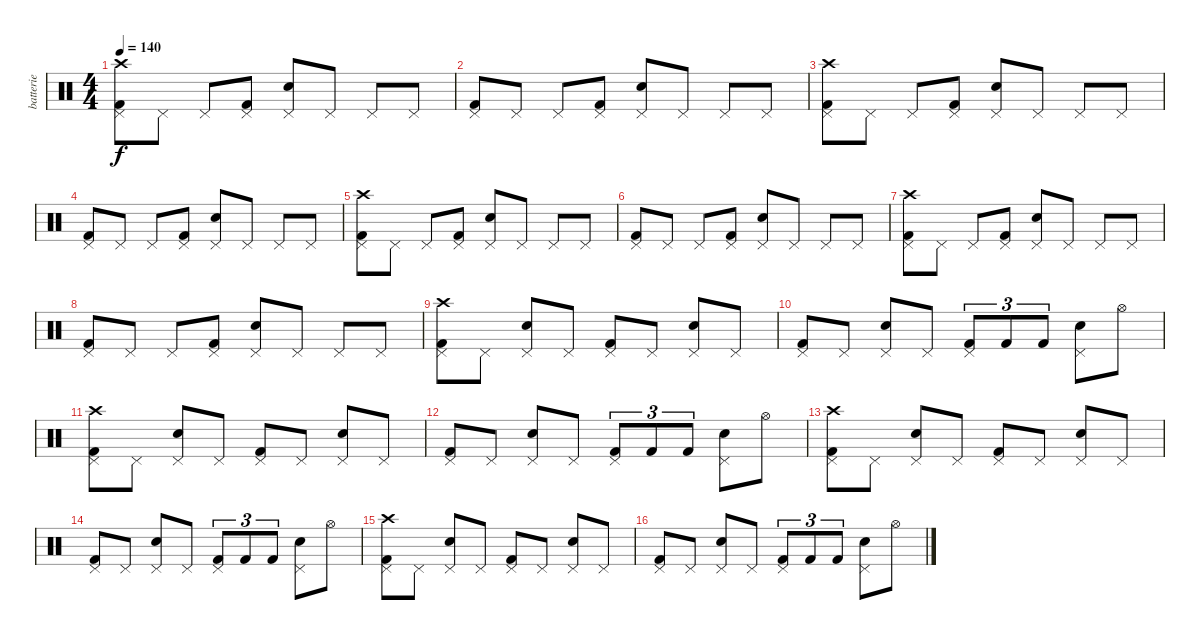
\track ("batterie" "batterie") {instrument percussion}
\staff {score}
\articulation defaults
\ts (4 4)
\tempo 140
\clef neutral
\ks c
("Crash high (hit)" "Kick (hit) 2" "Pedal Hi-Hat (hit)").8{dy f} "Pedal Hi-Hat (hit)".8 "Pedal Hi-Hat (hit)".8 ("Kick (hit) 2" "Pedal Hi-Hat (hit)").8 ("Snare (hit) 2" "Pedal Hi-Hat (hit)").8 "Pedal Hi-Hat (hit)".8 "Pedal Hi-Hat (hit)".8 "Pedal Hi-Hat (hit)".8 |
("Kick (hit) 2" "Pedal Hi-Hat (hit)").8 "Pedal Hi-Hat (hit)".8 "Pedal Hi-Hat (hit)".8 ("Kick (hit) 2" "Pedal Hi-Hat (hit)").8 ("Snare (hit) 2" "Pedal Hi-Hat (hit)").8 "Pedal Hi-Hat (hit)".8 "Pedal Hi-Hat (hit)".8 "Pedal Hi-Hat (hit)".8 |
("Crash high (hit)" "Kick (hit) 2" "Pedal Hi-Hat (hit)").8 "Pedal Hi-Hat (hit)".8 "Pedal Hi-Hat (hit)".8 ("Kick (hit) 2" "Pedal Hi-Hat (hit)").8 ("Snare (hit) 2" "Pedal Hi-Hat (hit)").8 "Pedal Hi-Hat (hit)".8 "Pedal Hi-Hat (hit)".8 "Pedal Hi-Hat (hit)".8 |
("Kick (hit) 2" "Pedal Hi-Hat (hit)").8 "Pedal Hi-Hat (hit)".8 "Pedal Hi-Hat (hit)".8 ("Kick (hit) 2" "Pedal Hi-Hat (hit)").8 ("Snare (hit) 2" "Pedal Hi-Hat (hit)").8 "Pedal Hi-Hat (hit)".8 "Pedal Hi-Hat (hit)".8 "Pedal Hi-Hat (hit)".8 |
("Crash high (hit)" "Kick (hit) 2" "Pedal Hi-Hat (hit)").8 "Pedal Hi-Hat (hit)".8 "Pedal Hi-Hat (hit)".8 ("Kick (hit) 2" "Pedal Hi-Hat (hit)").8 ("Snare (hit) 2" "Pedal Hi-Hat (hit)").8 "Pedal Hi-Hat (hit)".8 "Pedal Hi-Hat (hit)".8 "Pedal Hi-Hat (hit)".8 |
("Kick (hit) 2" "Pedal Hi-Hat (hit)").8 "Pedal Hi-Hat (hit)".8 "Pedal Hi-Hat (hit)".8 ("Kick (hit) 2" "Pedal Hi-Hat (hit)").8 ("Snare (hit) 2" "Pedal Hi-Hat (hit)").8 "Pedal Hi-Hat (hit)".8 "Pedal Hi-Hat (hit)".8 "Pedal Hi-Hat (hit)".8 |
("Crash high (hit)" "Kick (hit) 2" "Pedal Hi-Hat (hit)").8 "Pedal Hi-Hat (hit)".8 "Pedal Hi-Hat (hit)".8 ("Kick (hit) 2" "Pedal Hi-Hat (hit)").8 ("Snare (hit) 2" "Pedal Hi-Hat (hit)").8 "Pedal Hi-Hat (hit)".8 "Pedal Hi-Hat (hit)".8 "Pedal Hi-Hat (hit)".8 |
("Kick (hit) 2" "Pedal Hi-Hat (hit)").8 "Pedal Hi-Hat (hit)".8 "Pedal Hi-Hat (hit)".8 ("Kick (hit) 2" "Pedal Hi-Hat (hit)").8 ("Snare (hit) 2" "Pedal Hi-Hat (hit)").8 "Pedal Hi-Hat (hit)".8 "Pedal Hi-Hat (hit)".8 "Pedal Hi-Hat (hit)".8 |
("Crash high (hit)" "Kick (hit) 2" "Pedal Hi-Hat (hit)").8 "Pedal Hi-Hat (hit)".8 ("Snare (hit) 2" "Pedal Hi-Hat (hit)").8 "Pedal Hi-Hat (hit)".8 ("Kick (hit) 2" "Pedal Hi-Hat (hit)").8 "Pedal Hi-Hat (hit)".8 ("Snare (hit) 2" "Pedal Hi-Hat (hit)").8 "Pedal Hi-Hat (hit)".8 |
("Kick (hit) 2" "Pedal Hi-Hat (hit)").8 "Pedal Hi-Hat (hit)".8 ("Snare (hit) 2" "Pedal Hi-Hat (hit)").8 "Pedal Hi-Hat (hit)".8 ("Kick (hit) 2" "Pedal Hi-Hat (hit)").8{tu (3 2)} "Kick (hit) 2".8{tu (3 2)} "Kick (hit) 2".8{tu (3 2)} ("Snare (hit) 2" "Pedal Hi-Hat (hit)").8 "Hi-Hat (open)".8 |
("Crash high (hit)" "Kick (hit) 2" "Pedal Hi-Hat (hit)").8 "Pedal Hi-Hat (hit)".8 ("Snare (hit) 2" "Pedal Hi-Hat (hit)").8 "Pedal Hi-Hat (hit)".8 ("Kick (hit) 2" "Pedal Hi-Hat (hit)").8 "Pedal Hi-Hat (hit)".8 ("Snare (hit) 2" "Pedal Hi-Hat (hit)").8 "Pedal Hi-Hat (hit)".8 |
("Kick (hit) 2" "Pedal Hi-Hat (hit)").8 "Pedal Hi-Hat (hit)".8 ("Snare (hit) 2" "Pedal Hi-Hat (hit)").8 "Pedal Hi-Hat (hit)".8 ("Kick (hit) 2" "Pedal Hi-Hat (hit)").8{tu (3 2)} "Kick (hit) 2".8{tu (3 2)} "Kick (hit) 2".8{tu (3 2)} ("Snare (hit) 2" "Pedal Hi-Hat (hit)").8 "Hi-Hat (open)".8 |
("Crash high (hit)" "Kick (hit) 2" "Pedal Hi-Hat (hit)").8 "Pedal Hi-Hat (hit)".8 ("Snare (hit) 2" "Pedal Hi-Hat (hit)").8 "Pedal Hi-Hat (hit)".8 ("Kick (hit) 2" "Pedal Hi-Hat (hit)").8 "Pedal Hi-Hat (hit)".8 ("Snare (hit) 2" "Pedal Hi-Hat (hit)").8 "Pedal Hi-Hat (hit)".8 |
("Kick (hit) 2" "Pedal Hi-Hat (hit)").8 "Pedal Hi-Hat (hit)".8 ("Snare (hit) 2" "Pedal Hi-Hat (hit)").8 "Pedal Hi-Hat (hit)".8 ("Kick (hit) 2" "Pedal Hi-Hat (hit)").8{tu (3 2)} "Kick (hit) 2".8{tu (3 2)} "Kick (hit) 2".8{tu (3 2)} ("Snare (hit) 2" "Pedal Hi-Hat (hit)").8 "Hi-Hat (open)".8 |
("Crash high (hit)" "Kick (hit) 2" "Pedal Hi-Hat (hit)").8 "Pedal Hi-Hat (hit)".8 ("Snare (hit) 2" "Pedal Hi-Hat (hit)").8 "Pedal Hi-Hat (hit)".8 ("Kick (hit) 2" "Pedal Hi-Hat (hit)").8 "Pedal Hi-Hat (hit)".8 ("Snare (hit) 2" "Pedal Hi-Hat (hit)").8 "Pedal Hi-Hat (hit)".8 |
("Kick (hit) 2" "Pedal Hi-Hat (hit)").8 "Pedal Hi-Hat (hit)".8 ("Snare (hit) 2" "Pedal Hi-Hat (hit)").8 "Pedal Hi-Hat (hit)".8 ("Kick (hit) 2" "Pedal Hi-Hat (hit)").8{tu (3 2)} "Kick (hit) 2".8{tu (3 2)} "Kick (hit) 2".8{tu (3 2)} ("Snare (hit) 2" "Pedal Hi-Hat (hit)").8 "Hi-Hat (open)".8
